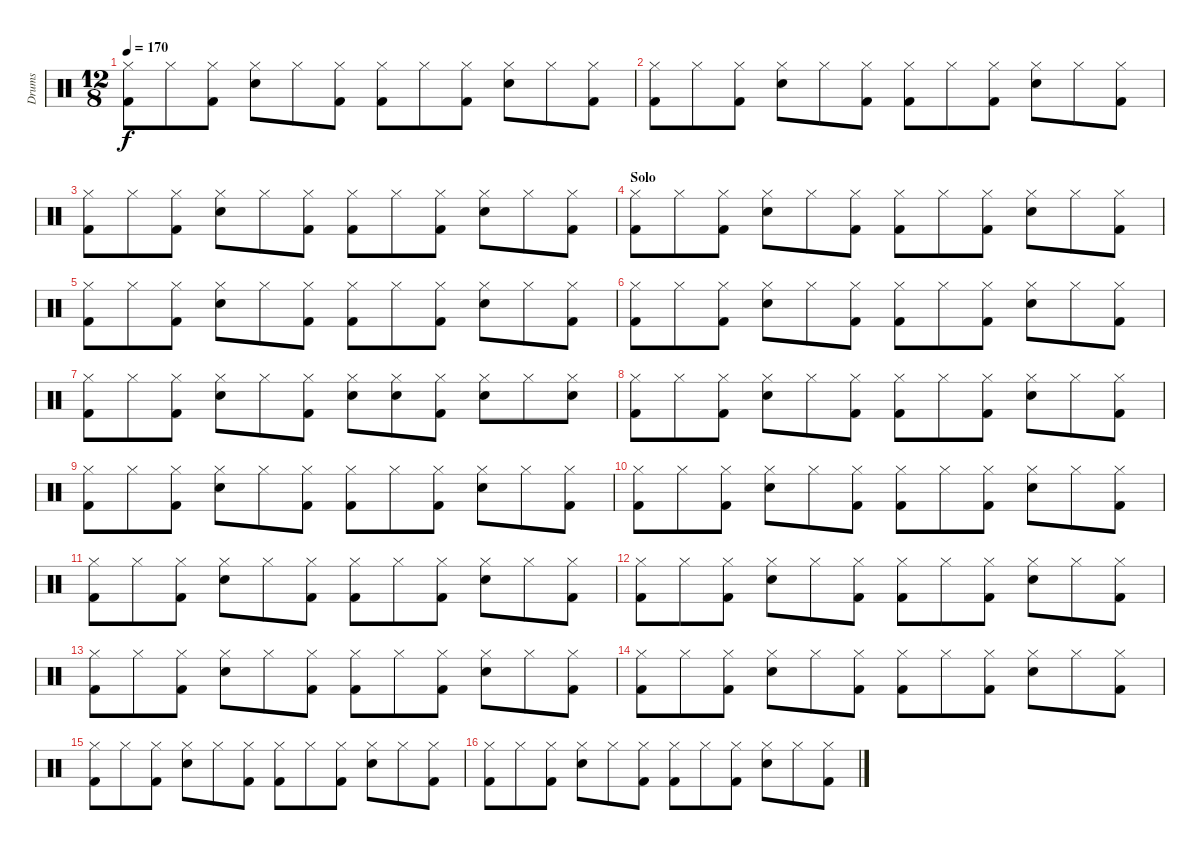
\track ("Drums" "Drums") {instrument percussion}
\staff {score}
\articulation defaults
\ts (12 8)
\tempo 170
\clef neutral
\ks c
("Kick (hit) 2" "Hi-Hat (closed)").8{dy f} "Hi-Hat (closed)".8 ("Kick (hit) 2" "Hi-Hat (closed)").8 ("Snare (hit) 2" "Hi-Hat (closed)").8 "Hi-Hat (closed)".8 ("Kick (hit) 2" "Hi-Hat (closed)").8 ("Kick (hit) 2" "Hi-Hat (closed)").8 "Hi-Hat (closed)".8 ("Kick (hit) 2" "Hi-Hat (closed)").8 ("Snare (hit) 2" "Hi-Hat (closed)").8 "Hi-Hat (closed)".8 ("Kick (hit) 2" "Hi-Hat (closed)").8 |
("Kick (hit) 2" "Hi-Hat (closed)").8 "Hi-Hat (closed)".8 ("Kick (hit) 2" "Hi-Hat (closed)").8 ("Snare (hit) 2" "Hi-Hat (closed)").8 "Hi-Hat (closed)".8 ("Kick (hit) 2" "Hi-Hat (closed)").8 ("Kick (hit) 2" "Hi-Hat (closed)").8 "Hi-Hat (closed)".8 ("Kick (hit) 2" "Hi-Hat (closed)").8 ("Snare (hit) 2" "Hi-Hat (closed)").8 "Hi-Hat (closed)".8 ("Kick (hit) 2" "Hi-Hat (closed)").8 |
("Kick (hit) 2" "Hi-Hat (closed)").8 "Hi-Hat (closed)".8 ("Kick (hit) 2" "Hi-Hat (closed)").8 ("Snare (hit) 2" "Hi-Hat (closed)").8 "Hi-Hat (closed)".8 ("Kick (hit) 2" "Hi-Hat (closed)").8 ("Kick (hit) 2" "Hi-Hat (closed)").8 "Hi-Hat (closed)".8 ("Kick (hit) 2" "Hi-Hat (closed)").8 ("Snare (hit) 2" "Hi-Hat (closed)").8 "Hi-Hat (closed)".8 ("Kick (hit) 2" "Hi-Hat (closed)").8 |
\section ("" "Solo")
("Kick (hit) 2" "Hi-Hat (closed)").8 "Hi-Hat (closed)".8 ("Kick (hit) 2" "Hi-Hat (closed)").8 ("Snare (hit) 2" "Hi-Hat (closed)").8 "Hi-Hat (closed)".8 ("Kick (hit) 2" "Hi-Hat (closed)").8 ("Kick (hit) 2" "Hi-Hat (closed)").8 "Hi-Hat (closed)".8 ("Kick (hit) 2" "Hi-Hat (closed)").8 ("Snare (hit) 2" "Hi-Hat (closed)").8 "Hi-Hat (closed)".8 ("Kick (hit) 2" "Hi-Hat (closed)").8 |
("Kick (hit) 2" "Hi-Hat (closed)").8 "Hi-Hat (closed)".8 ("Kick (hit) 2" "Hi-Hat (closed)").8 ("Snare (hit) 2" "Hi-Hat (closed)").8 "Hi-Hat (closed)".8 ("Kick (hit) 2" "Hi-Hat (closed)").8 ("Kick (hit) 2" "Hi-Hat (closed)").8 "Hi-Hat (closed)".8 ("Kick (hit) 2" "Hi-Hat (closed)").8 ("Snare (hit) 2" "Hi-Hat (closed)").8 "Hi-Hat (closed)".8 ("Kick (hit) 2" "Hi-Hat (closed)").8 |
("Kick (hit) 2" "Hi-Hat (closed)").8 "Hi-Hat (closed)".8 ("Kick (hit) 2" "Hi-Hat (closed)").8 ("Snare (hit) 2" "Hi-Hat (closed)").8 "Hi-Hat (closed)".8 ("Kick (hit) 2" "Hi-Hat (closed)").8 ("Kick (hit) 2" "Hi-Hat (closed)").8 "Hi-Hat (closed)".8 ("Kick (hit) 2" "Hi-Hat (closed)").8 ("Snare (hit) 2" "Hi-Hat (closed)").8 "Hi-Hat (closed)".8 ("Kick (hit) 2" "Hi-Hat (closed)").8 |
("Kick (hit) 2" "Hi-Hat (closed)").8 "Hi-Hat (closed)".8 ("Kick (hit) 2" "Hi-Hat (closed)").8 ("Snare (hit) 2" "Hi-Hat (closed)").8 "Hi-Hat (closed)".8 ("Kick (hit) 2" "Hi-Hat (closed)").8 ("Snare (hit) 2" "Hi-Hat (closed)").8 ("Snare (hit) 2" "Hi-Hat (closed)").8 ("Kick (hit) 2" "Hi-Hat (closed)").8 ("Snare (hit) 2" "Hi-Hat (closed)").8 "Hi-Hat (closed)".8 ("Snare (hit) 2" "Hi-Hat (closed)").8 |
("Kick (hit) 2" "Hi-Hat (closed)").8 "Hi-Hat (closed)".8 ("Kick (hit) 2" "Hi-Hat (closed)").8 ("Snare (hit) 2" "Hi-Hat (closed)").8 "Hi-Hat (closed)".8 ("Kick (hit) 2" "Hi-Hat (closed)").8 ("Kick (hit) 2" "Hi-Hat (closed)").8 "Hi-Hat (closed)".8 ("Kick (hit) 2" "Hi-Hat (closed)").8 ("Snare (hit) 2" "Hi-Hat (closed)").8 "Hi-Hat (closed)".8 ("Kick (hit) 2" "Hi-Hat (closed)").8 |
("Kick (hit) 2" "Hi-Hat (closed)").8 "Hi-Hat (closed)".8 ("Kick (hit) 2" "Hi-Hat (closed)").8 ("Snare (hit) 2" "Hi-Hat (closed)").8 "Hi-Hat (closed)".8 ("Kick (hit) 2" "Hi-Hat (closed)").8 ("Kick (hit) 2" "Hi-Hat (closed)").8 "Hi-Hat (closed)".8 ("Kick (hit) 2" "Hi-Hat (closed)").8 ("Snare (hit) 2" "Hi-Hat (closed)").8 "Hi-Hat (closed)".8 ("Kick (hit) 2" "Hi-Hat (closed)").8 |
("Kick (hit) 2" "Hi-Hat (closed)").8 "Hi-Hat (closed)".8 ("Kick (hit) 2" "Hi-Hat (closed)").8 ("Snare (hit) 2" "Hi-Hat (closed)").8 "Hi-Hat (closed)".8 ("Kick (hit) 2" "Hi-Hat (closed)").8 ("Kick (hit) 2" "Hi-Hat (closed)").8 "Hi-Hat (closed)".8 ("Kick (hit) 2" "Hi-Hat (closed)").8 ("Snare (hit) 2" "Hi-Hat (closed)").8 "Hi-Hat (closed)".8 ("Kick (hit) 2" "Hi-Hat (closed)").8 |
("Kick (hit) 2" "Hi-Hat (closed)").8 "Hi-Hat (closed)".8 ("Kick (hit) 2" "Hi-Hat (closed)").8 ("Snare (hit) 2" "Hi-Hat (closed)").8 "Hi-Hat (closed)".8 ("Kick (hit) 2" "Hi-Hat (closed)").8 ("Kick (hit) 2" "Hi-Hat (closed)").8 "Hi-Hat (closed)".8 ("Kick (hit) 2" "Hi-Hat (closed)").8 ("Snare (hit) 2" "Hi-Hat (closed)").8 "Hi-Hat (closed)".8 ("Kick (hit) 2" "Hi-Hat (closed)").8 |
("Kick (hit) 2" "Hi-Hat (closed)").8 "Hi-Hat (closed)".8 ("Kick (hit) 2" "Hi-Hat (closed)").8 ("Snare (hit) 2" "Hi-Hat (closed)").8 "Hi-Hat (closed)".8 ("Kick (hit) 2" "Hi-Hat (closed)").8 ("Kick (hit) 2" "Hi-Hat (closed)").8 "Hi-Hat (closed)".8 ("Kick (hit) 2" "Hi-Hat (closed)").8 ("Snare (hit) 2" "Hi-Hat (closed)").8 "Hi-Hat (closed)".8 ("Kick (hit) 2" "Hi-Hat (closed)").8 |
("Kick (hit) 2" "Hi-Hat (closed)").8 "Hi-Hat (closed)".8 ("Kick (hit) 2" "Hi-Hat (closed)").8 ("Snare (hit) 2" "Hi-Hat (closed)").8 "Hi-Hat (closed)".8 ("Kick (hit) 2" "Hi-Hat (closed)").8 ("Kick (hit) 2" "Hi-Hat (closed)").8 "Hi-Hat (closed)".8 ("Kick (hit) 2" "Hi-Hat (closed)").8 ("Snare (hit) 2" "Hi-Hat (closed)").8 "Hi-Hat (closed)".8 ("Kick (hit) 2" "Hi-Hat (closed)").8 |
("Kick (hit) 2" "Hi-Hat (closed)").8 "Hi-Hat (closed)".8 ("Kick (hit) 2" "Hi-Hat (closed)").8 ("Snare (hit) 2" "Hi-Hat (closed)").8 "Hi-Hat (closed)".8 ("Kick (hit) 2" "Hi-Hat (closed)").8 ("Kick (hit) 2" "Hi-Hat (closed)").8 "Hi-Hat (closed)".8 ("Kick (hit) 2" "Hi-Hat (closed)").8 ("Snare (hit) 2" "Hi-Hat (closed)").8 "Hi-Hat (closed)".8 ("Kick (hit) 2" "Hi-Hat (closed)").8 |
("Kick (hit) 2" "Hi-Hat (closed)").8 "Hi-Hat (closed)".8 ("Kick (hit) 2" "Hi-Hat (closed)").8 ("Snare (hit) 2" "Hi-Hat (closed)").8 "Hi-Hat (closed)".8 ("Kick (hit) 2" "Hi-Hat (closed)").8 ("Kick (hit) 2" "Hi-Hat (closed)").8 "Hi-Hat (closed)".8 ("Kick (hit) 2" "Hi-Hat (closed)").8 ("Snare (hit) 2" "Hi-Hat (closed)").8 "Hi-Hat (closed)".8 ("Kick (hit) 2" "Hi-Hat (closed)").8 |
("Kick (hit) 2" "Hi-Hat (closed)").8 "Hi-Hat (closed)".8 ("Kick (hit) 2" "Hi-Hat (closed)").8 ("Snare (hit) 2" "Hi-Hat (closed)").8 "Hi-Hat (closed)".8 ("Kick (hit) 2" "Hi-Hat (closed)").8 ("Kick (hit) 2" "Hi-Hat (closed)").8 "Hi-Hat (closed)".8 ("Kick (hit) 2" "Hi-Hat (closed)").8 ("Snare (hit) 2" "Hi-Hat (closed)").8 "Hi-Hat (closed)".8 ("Kick (hit) 2" "Hi-Hat (closed)").8
